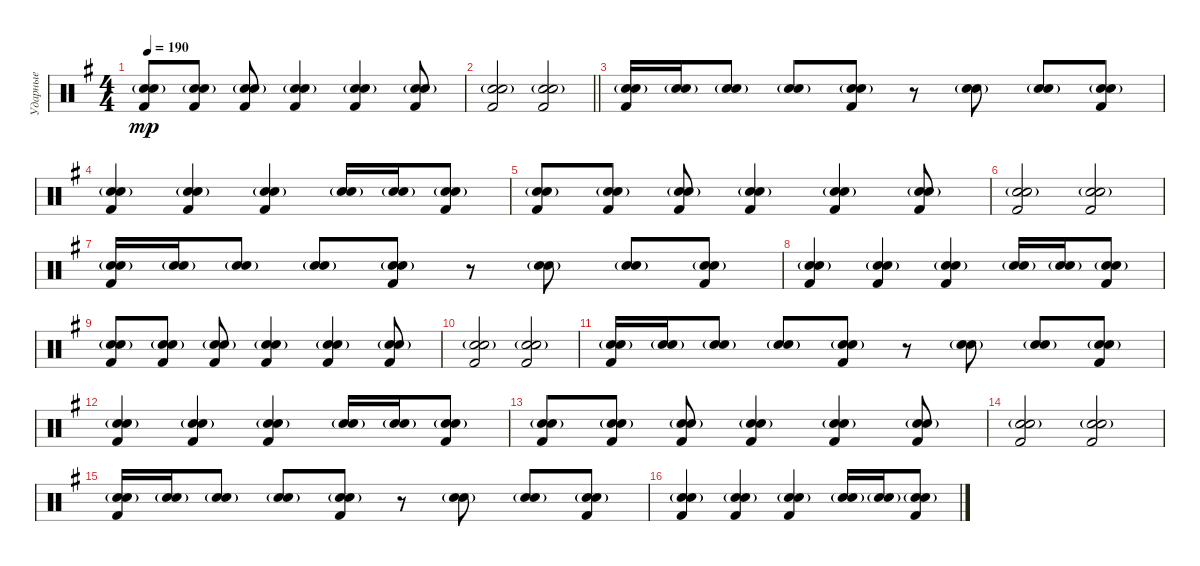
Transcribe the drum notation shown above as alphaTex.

\track ("Ударные" "Ударные") {instrument percussion}
\staff {score}
\articulation defaults
\ts (4 4)
\tempo 190
\clef neutral
\ks g
("Kick (hit) 2" "Snare (hit) 2"{g} "Electric Snare (hit)").8{dy mp} ("Kick (hit) 2" "Snare (hit) 2"{g} "Electric Snare (hit)").8 ("Kick (hit) 2" "Snare (hit) 2"{g} "Electric Snare (hit)").8 ("Kick (hit) 2" "Snare (hit) 2"{g} "Electric Snare (hit)").4 ("Kick (hit) 2" "Snare (hit) 2"{g} "Electric Snare (hit)").4 ("Kick (hit) 2" "Snare (hit) 2"{g} "Electric Snare (hit)").8 |
\barLineRight lightlight
("Kick (hit) 2" "Snare (hit) 2"{g} "Electric Snare (hit)").2 ("Kick (hit) 2" "Snare (hit) 2"{g} "Electric Snare (hit)").2 |
("Kick (hit) 2" "Snare (hit) 2"{g} "Electric Snare (hit)").16 ("Snare (hit) 2"{g} "Electric Snare (hit)"{g}).16 ("Snare (hit) 2"{g} "Electric Snare (hit)"{g}).8 ("Snare (hit) 2"{g} "Electric Snare (hit)").8 ("Kick (hit) 2" "Snare (hit) 2"{g} "Electric Snare (hit)").8 r.8 ("Snare (hit) 2"{g} "Electric Snare (hit)").8 ("Snare (hit) 2"{g} "Electric Snare (hit)"{g}).8 ("Kick (hit) 2" "Snare (hit) 2"{g} "Electric Snare (hit)").8 |
("Kick (hit) 2" "Snare (hit) 2"{g} "Electric Snare (hit)").4 ("Kick (hit) 2" "Snare (hit) 2"{g} "Electric Snare (hit)").4 ("Kick (hit) 2" "Snare (hit) 2"{g} "Electric Snare (hit)").4 ("Snare (hit) 2"{g} "Electric Snare (hit)"{g}).16 ("Snare (hit) 2"{g} "Electric Snare (hit)"{g}).16 ("Kick (hit) 2" "Snare (hit) 2"{g} "Electric Snare (hit)").8 |
("Kick (hit) 2" "Snare (hit) 2"{g} "Electric Snare (hit)").8 ("Kick (hit) 2" "Snare (hit) 2"{g} "Electric Snare (hit)").8 ("Kick (hit) 2" "Snare (hit) 2"{g} "Electric Snare (hit)").8 ("Kick (hit) 2" "Snare (hit) 2"{g} "Electric Snare (hit)").4 ("Kick (hit) 2" "Snare (hit) 2"{g} "Electric Snare (hit)").4 ("Kick (hit) 2" "Snare (hit) 2"{g} "Electric Snare (hit)").8 |
("Kick (hit) 2" "Snare (hit) 2"{g} "Electric Snare (hit)").2 ("Kick (hit) 2" "Snare (hit) 2"{g} "Electric Snare (hit)").2 |
("Kick (hit) 2" "Snare (hit) 2"{g} "Electric Snare (hit)").16 ("Snare (hit) 2"{g} "Electric Snare (hit)"{g}).16 ("Snare (hit) 2"{g} "Electric Snare (hit)"{g}).8 ("Snare (hit) 2"{g} "Electric Snare (hit)").8 ("Kick (hit) 2" "Snare (hit) 2"{g} "Electric Snare (hit)").8 r.8 ("Snare (hit) 2"{g} "Electric Snare (hit)").8 ("Snare (hit) 2"{g} "Electric Snare (hit)"{g}).8 ("Kick (hit) 2" "Snare (hit) 2"{g} "Electric Snare (hit)").8 |
("Kick (hit) 2" "Snare (hit) 2"{g} "Electric Snare (hit)").4 ("Kick (hit) 2" "Snare (hit) 2"{g} "Electric Snare (hit)").4 ("Kick (hit) 2" "Snare (hit) 2"{g} "Electric Snare (hit)").4 ("Snare (hit) 2"{g} "Electric Snare (hit)"{g}).16 ("Snare (hit) 2"{g} "Electric Snare (hit)"{g}).16 ("Kick (hit) 2" "Snare (hit) 2"{g} "Electric Snare (hit)").8 |
("Kick (hit) 2" "Snare (hit) 2"{g} "Electric Snare (hit)").8 ("Kick (hit) 2" "Snare (hit) 2"{g} "Electric Snare (hit)").8 ("Kick (hit) 2" "Snare (hit) 2"{g} "Electric Snare (hit)").8 ("Kick (hit) 2" "Snare (hit) 2"{g} "Electric Snare (hit)").4 ("Kick (hit) 2" "Snare (hit) 2"{g} "Electric Snare (hit)").4 ("Kick (hit) 2" "Snare (hit) 2"{g} "Electric Snare (hit)").8 |
("Kick (hit) 2" "Snare (hit) 2"{g} "Electric Snare (hit)").2 ("Kick (hit) 2" "Snare (hit) 2"{g} "Electric Snare (hit)").2 |
("Kick (hit) 2" "Snare (hit) 2"{g} "Electric Snare (hit)").16 ("Snare (hit) 2"{g} "Electric Snare (hit)"{g}).16 ("Snare (hit) 2"{g} "Electric Snare (hit)"{g}).8 ("Snare (hit) 2"{g} "Electric Snare (hit)").8 ("Kick (hit) 2" "Snare (hit) 2"{g} "Electric Snare (hit)").8 r.8 ("Snare (hit) 2"{g} "Electric Snare (hit)").8 ("Snare (hit) 2"{g} "Electric Snare (hit)"{g}).8 ("Kick (hit) 2" "Snare (hit) 2"{g} "Electric Snare (hit)").8 |
("Kick (hit) 2" "Snare (hit) 2"{g} "Electric Snare (hit)").4 ("Kick (hit) 2" "Snare (hit) 2"{g} "Electric Snare (hit)").4 ("Kick (hit) 2" "Snare (hit) 2"{g} "Electric Snare (hit)").4 ("Snare (hit) 2"{g} "Electric Snare (hit)"{g}).16 ("Snare (hit) 2"{g} "Electric Snare (hit)"{g}).16 ("Kick (hit) 2" "Snare (hit) 2"{g} "Electric Snare (hit)").8 |
("Kick (hit) 2" "Snare (hit) 2"{g} "Electric Snare (hit)").8 ("Kick (hit) 2" "Snare (hit) 2"{g} "Electric Snare (hit)").8 ("Kick (hit) 2" "Snare (hit) 2"{g} "Electric Snare (hit)").8 ("Kick (hit) 2" "Snare (hit) 2"{g} "Electric Snare (hit)").4 ("Kick (hit) 2" "Snare (hit) 2"{g} "Electric Snare (hit)").4 ("Kick (hit) 2" "Snare (hit) 2"{g} "Electric Snare (hit)").8 |
("Kick (hit) 2" "Snare (hit) 2"{g} "Electric Snare (hit)").2 ("Kick (hit) 2" "Snare (hit) 2"{g} "Electric Snare (hit)").2 |
("Kick (hit) 2" "Snare (hit) 2"{g} "Electric Snare (hit)").16 ("Snare (hit) 2"{g} "Electric Snare (hit)"{g}).16 ("Snare (hit) 2"{g} "Electric Snare (hit)"{g}).8 ("Snare (hit) 2"{g} "Electric Snare (hit)").8 ("Kick (hit) 2" "Snare (hit) 2"{g} "Electric Snare (hit)").8 r.8 ("Snare (hit) 2"{g} "Electric Snare (hit)").8 ("Snare (hit) 2"{g} "Electric Snare (hit)"{g}).8 ("Kick (hit) 2" "Snare (hit) 2"{g} "Electric Snare (hit)").8 |
("Kick (hit) 2" "Snare (hit) 2"{g} "Electric Snare (hit)").4 ("Kick (hit) 2" "Snare (hit) 2"{g} "Electric Snare (hit)").4 ("Kick (hit) 2" "Snare (hit) 2"{g} "Electric Snare (hit)").4 ("Snare (hit) 2"{g} "Electric Snare (hit)"{g}).16 ("Snare (hit) 2"{g} "Electric Snare (hit)"{g}).16 ("Kick (hit) 2" "Snare (hit) 2"{g} "Electric Snare (hit)").8
